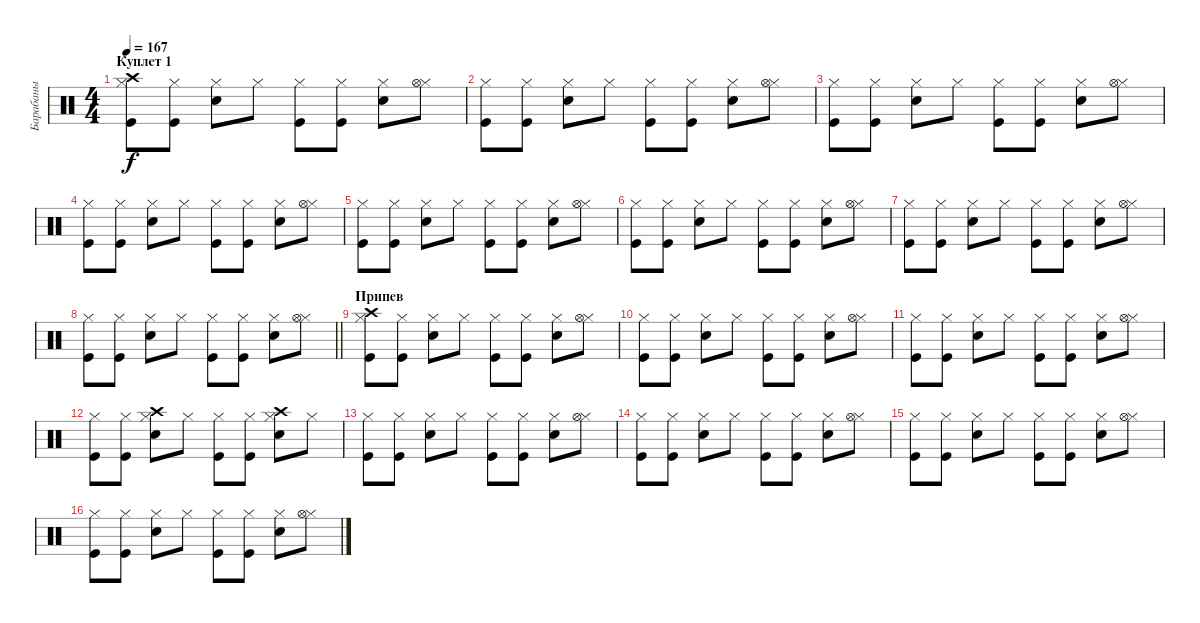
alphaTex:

\track ("Барабаны" "Барабаны") {instrument percussion}
\staff {score}
\articulation defaults
\ts (4 4)
\section ("" "Куплет 1")
\tempo 167
\clef neutral
\ks c
("Kick (hit)" "Hi-Hat (closed)" "Crash high (hit)").8{dy f} ("Kick (hit)" "Hi-Hat (closed)").8 ("Snare (hit) 2" "Hi-Hat (closed)").8 "Hi-Hat (closed)".8 ("Kick (hit)" "Hi-Hat (closed)").8 ("Kick (hit)" "Hi-Hat (closed)").8 ("Snare (hit) 2" "Hi-Hat (closed)").8 ("Hi-Hat (closed)" "Hi-Hat (open)").8 |
("Kick (hit)" "Hi-Hat (closed)").8 ("Kick (hit)" "Hi-Hat (closed)").8 ("Snare (hit) 2" "Hi-Hat (closed)").8 "Hi-Hat (closed)".8 ("Kick (hit)" "Hi-Hat (closed)").8 ("Kick (hit)" "Hi-Hat (closed)").8 ("Snare (hit) 2" "Hi-Hat (closed)").8 ("Hi-Hat (closed)" "Hi-Hat (open)").8 |
("Kick (hit)" "Hi-Hat (closed)").8 ("Kick (hit)" "Hi-Hat (closed)").8 ("Snare (hit) 2" "Hi-Hat (closed)").8 "Hi-Hat (closed)".8 ("Kick (hit)" "Hi-Hat (closed)").8 ("Kick (hit)" "Hi-Hat (closed)").8 ("Snare (hit) 2" "Hi-Hat (closed)").8 ("Hi-Hat (closed)" "Hi-Hat (open)").8 |
("Kick (hit)" "Hi-Hat (closed)").8 ("Kick (hit)" "Hi-Hat (closed)").8 ("Snare (hit) 2" "Hi-Hat (closed)").8 "Hi-Hat (closed)".8 ("Kick (hit)" "Hi-Hat (closed)").8 ("Kick (hit)" "Hi-Hat (closed)").8 ("Snare (hit) 2" "Hi-Hat (closed)").8 ("Hi-Hat (closed)" "Hi-Hat (open)").8 |
("Kick (hit)" "Hi-Hat (closed)").8 ("Kick (hit)" "Hi-Hat (closed)").8 ("Snare (hit) 2" "Hi-Hat (closed)").8 "Hi-Hat (closed)".8 ("Kick (hit)" "Hi-Hat (closed)").8 ("Kick (hit)" "Hi-Hat (closed)").8 ("Snare (hit) 2" "Hi-Hat (closed)").8 ("Hi-Hat (closed)" "Hi-Hat (open)").8 |
("Kick (hit)" "Hi-Hat (closed)").8 ("Kick (hit)" "Hi-Hat (closed)").8 ("Snare (hit) 2" "Hi-Hat (closed)").8 "Hi-Hat (closed)".8 ("Kick (hit)" "Hi-Hat (closed)").8 ("Kick (hit)" "Hi-Hat (closed)").8 ("Snare (hit) 2" "Hi-Hat (closed)").8 ("Hi-Hat (closed)" "Hi-Hat (open)").8 |
("Kick (hit)" "Hi-Hat (closed)").8 ("Kick (hit)" "Hi-Hat (closed)").8 ("Snare (hit) 2" "Hi-Hat (closed)").8 "Hi-Hat (closed)".8 ("Kick (hit)" "Hi-Hat (closed)").8 ("Kick (hit)" "Hi-Hat (closed)").8 ("Snare (hit) 2" "Hi-Hat (closed)").8 ("Hi-Hat (closed)" "Hi-Hat (open)").8 |
\barLineRight lightlight
("Kick (hit)" "Hi-Hat (closed)").8 ("Kick (hit)" "Hi-Hat (closed)").8 ("Snare (hit) 2" "Hi-Hat (closed)").8 "Hi-Hat (closed)".8 ("Kick (hit)" "Hi-Hat (closed)").8 ("Kick (hit)" "Hi-Hat (closed)").8 ("Snare (hit) 2" "Hi-Hat (closed)").8 ("Hi-Hat (closed)" "Hi-Hat (open)").8 |
\section ("" "Припев")
("Kick (hit)" "Hi-Hat (closed)" "Crash high (hit)").8 ("Kick (hit)" "Hi-Hat (closed)").8 ("Snare (hit) 2" "Hi-Hat (closed)").8 "Hi-Hat (closed)".8 ("Kick (hit)" "Hi-Hat (closed)").8 ("Kick (hit)" "Hi-Hat (closed)").8 ("Snare (hit) 2" "Hi-Hat (closed)").8 ("Hi-Hat (closed)" "Hi-Hat (open)").8 |
("Kick (hit)" "Hi-Hat (closed)").8 ("Kick (hit)" "Hi-Hat (closed)").8 ("Snare (hit) 2" "Hi-Hat (closed)").8 "Hi-Hat (closed)".8 ("Kick (hit)" "Hi-Hat (closed)").8 ("Kick (hit)" "Hi-Hat (closed)").8 ("Snare (hit) 2" "Hi-Hat (closed)").8 ("Hi-Hat (closed)" "Hi-Hat (open)").8 |
("Kick (hit)" "Hi-Hat (closed)").8 ("Kick (hit)" "Hi-Hat (closed)").8 ("Snare (hit) 2" "Hi-Hat (closed)").8 "Hi-Hat (closed)".8 ("Kick (hit)" "Hi-Hat (closed)").8 ("Kick (hit)" "Hi-Hat (closed)").8 ("Snare (hit) 2" "Hi-Hat (closed)").8 ("Hi-Hat (closed)" "Hi-Hat (open)").8 |
("Kick (hit)" "Hi-Hat (closed)").8 ("Kick (hit)" "Hi-Hat (closed)").8 ("Snare (hit) 2" "Hi-Hat (closed)" "Crash high (hit)").8 "Hi-Hat (closed)".8 ("Kick (hit)" "Hi-Hat (closed)").8 ("Kick (hit)" "Hi-Hat (closed)").8 ("Snare (hit) 2" "Hi-Hat (closed)" "Crash high (hit)").8 "Hi-Hat (closed)".8 |
("Kick (hit)" "Hi-Hat (closed)").8 ("Kick (hit)" "Hi-Hat (closed)").8 ("Snare (hit) 2" "Hi-Hat (closed)").8 "Hi-Hat (closed)".8 ("Kick (hit)" "Hi-Hat (closed)").8 ("Kick (hit)" "Hi-Hat (closed)").8 ("Snare (hit) 2" "Hi-Hat (closed)").8 ("Hi-Hat (closed)" "Hi-Hat (open)").8 |
("Kick (hit)" "Hi-Hat (closed)").8 ("Kick (hit)" "Hi-Hat (closed)").8 ("Snare (hit) 2" "Hi-Hat (closed)").8 "Hi-Hat (closed)".8 ("Kick (hit)" "Hi-Hat (closed)").8 ("Kick (hit)" "Hi-Hat (closed)").8 ("Snare (hit) 2" "Hi-Hat (closed)").8 ("Hi-Hat (closed)" "Hi-Hat (open)").8 |
("Kick (hit)" "Hi-Hat (closed)").8 ("Kick (hit)" "Hi-Hat (closed)").8 ("Snare (hit) 2" "Hi-Hat (closed)").8 "Hi-Hat (closed)".8 ("Kick (hit)" "Hi-Hat (closed)").8 ("Kick (hit)" "Hi-Hat (closed)").8 ("Snare (hit) 2" "Hi-Hat (closed)").8 ("Hi-Hat (closed)" "Hi-Hat (open)").8 |
("Kick (hit)" "Hi-Hat (closed)").8 ("Kick (hit)" "Hi-Hat (closed)").8 ("Snare (hit) 2" "Hi-Hat (closed)").8 "Hi-Hat (closed)".8 ("Kick (hit)" "Hi-Hat (closed)").8 ("Kick (hit)" "Hi-Hat (closed)").8 ("Snare (hit) 2" "Hi-Hat (closed)").8 ("Hi-Hat (closed)" "Hi-Hat (open)").8
